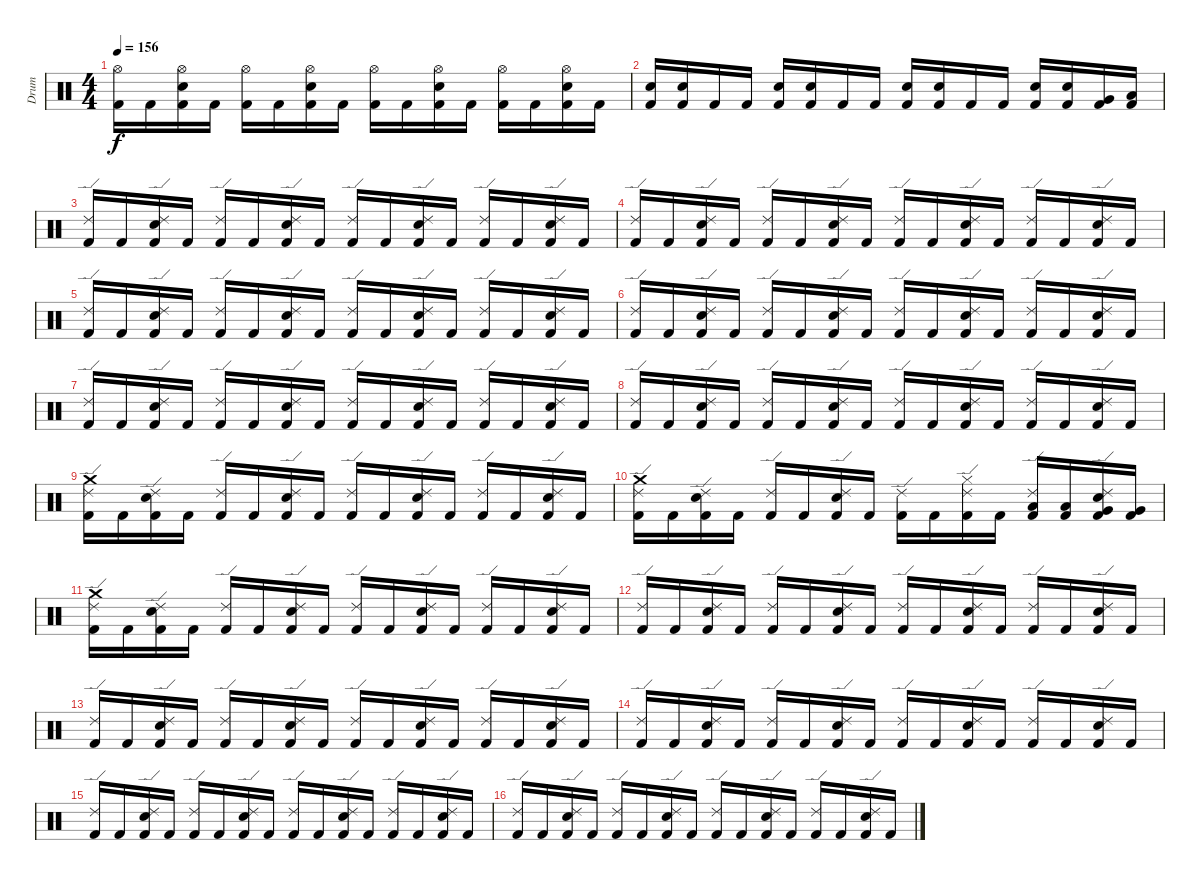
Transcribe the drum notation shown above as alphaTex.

\track (" Drum" " Drum") {instrument percussion}
\staff {score}
\articulation defaults
\ts (4 4)
\tempo 156
\clef neutral
\ks c
("Hi-Hat (open)" "Kick (hit) 2").16{dy f} "Kick (hit) 2".16 ("Snare (hit) 2" "Hi-Hat (open)" "Kick (hit) 2").16 "Kick (hit) 2".16 ("Hi-Hat (open)" "Kick (hit) 2").16 "Kick (hit) 2".16 ("Snare (hit) 2" "Hi-Hat (open)" "Kick (hit) 2").16 "Kick (hit) 2".16 ("Hi-Hat (open)" "Kick (hit) 2").16 "Kick (hit) 2".16 ("Snare (hit) 2" "Hi-Hat (open)" "Kick (hit) 2").16 "Kick (hit) 2".16 ("Hi-Hat (open)" "Kick (hit) 2").16 "Kick (hit) 2".16 ("Snare (hit) 2" "Hi-Hat (open)" "Kick (hit) 2").16 "Kick (hit) 2".16 |
("Electric Snare (hit)" "Kick (hit) 2").16 ("Electric Snare (hit)" "Kick (hit) 2").16 "Kick (hit) 2".16 "Kick (hit) 2".16 ("Electric Snare (hit)" "Kick (hit) 2").16 ("Electric Snare (hit)" "Kick (hit) 2").16 "Kick (hit) 2".16 "Kick (hit) 2".16 ("Electric Snare (hit)" "Kick (hit) 2").16 ("Electric Snare (hit)" "Kick (hit) 2").16 "Kick (hit) 2".16 "Kick (hit) 2".16 ("Electric Snare (hit)" "Kick (hit) 2").16 ("Electric Snare (hit)" "Kick (hit) 2").16 ("Very Low Tom (hit)" "Kick (hit) 2").16 ("Low Floor Tom (hit)" "Kick (hit) 2").16 |
("Ride (edge) 2" "Kick (hit) 2").16 "Kick (hit) 2".16 ("Snare (hit) 2" "Ride (edge) 2" "Kick (hit) 2").16 "Kick (hit) 2".16 ("Ride (edge) 2" "Kick (hit) 2").16 "Kick (hit) 2".16 ("Snare (hit) 2" "Ride (edge) 2" "Kick (hit) 2").16 "Kick (hit) 2".16 ("Ride (edge) 2" "Kick (hit) 2").16 "Kick (hit) 2".16 ("Snare (hit) 2" "Ride (edge) 2" "Kick (hit) 2").16 "Kick (hit) 2".16 ("Ride (edge) 2" "Kick (hit) 2").16 "Kick (hit) 2".16 ("Snare (hit) 2" "Ride (edge) 2" "Kick (hit) 2").16 "Kick (hit) 2".16 |
("Ride (edge) 2" "Kick (hit) 2").16 "Kick (hit) 2".16 ("Snare (hit) 2" "Ride (edge) 2" "Kick (hit) 2").16 "Kick (hit) 2".16 ("Ride (edge) 2" "Kick (hit) 2").16 "Kick (hit) 2".16 ("Snare (hit) 2" "Ride (edge) 2" "Kick (hit) 2").16 "Kick (hit) 2".16 ("Ride (edge) 2" "Kick (hit) 2").16 "Kick (hit) 2".16 ("Snare (hit) 2" "Ride (edge) 2" "Kick (hit) 2").16 "Kick (hit) 2".16 ("Ride (edge) 2" "Kick (hit) 2").16 "Kick (hit) 2".16 ("Snare (hit) 2" "Ride (edge) 2" "Kick (hit) 2").16 "Kick (hit) 2".16 |
("Ride (edge) 2" "Kick (hit) 2").16 "Kick (hit) 2".16 ("Snare (hit) 2" "Ride (edge) 2" "Kick (hit) 2").16 "Kick (hit) 2".16 ("Ride (edge) 2" "Kick (hit) 2").16 "Kick (hit) 2".16 ("Snare (hit) 2" "Ride (edge) 2" "Kick (hit) 2").16 "Kick (hit) 2".16 ("Ride (edge) 2" "Kick (hit) 2").16 "Kick (hit) 2".16 ("Snare (hit) 2" "Ride (edge) 2" "Kick (hit) 2").16 "Kick (hit) 2".16 ("Ride (edge) 2" "Kick (hit) 2").16 "Kick (hit) 2".16 ("Snare (hit) 2" "Ride (edge) 2" "Kick (hit) 2").16 "Kick (hit) 2".16 |
("Ride (edge) 2" "Kick (hit) 2").16 "Kick (hit) 2".16 ("Snare (hit) 2" "Ride (edge) 2" "Kick (hit) 2").16 "Kick (hit) 2".16 ("Ride (edge) 2" "Kick (hit) 2").16 "Kick (hit) 2".16 ("Snare (hit) 2" "Ride (edge) 2" "Kick (hit) 2").16 "Kick (hit) 2".16 ("Ride (edge) 2" "Kick (hit) 2").16 "Kick (hit) 2".16 ("Snare (hit) 2" "Ride (edge) 2" "Kick (hit) 2").16 "Kick (hit) 2".16 ("Ride (edge) 2" "Kick (hit) 2").16 "Kick (hit) 2".16 ("Snare (hit) 2" "Ride (edge) 2" "Kick (hit) 2").16 "Kick (hit) 2".16 |
("Ride (edge) 2" "Kick (hit) 2").16 "Kick (hit) 2".16 ("Snare (hit) 2" "Ride (edge) 2" "Kick (hit) 2").16 "Kick (hit) 2".16 ("Ride (edge) 2" "Kick (hit) 2").16 "Kick (hit) 2".16 ("Snare (hit) 2" "Ride (edge) 2" "Kick (hit) 2").16 "Kick (hit) 2".16 ("Ride (edge) 2" "Kick (hit) 2").16 "Kick (hit) 2".16 ("Snare (hit) 2" "Ride (edge) 2" "Kick (hit) 2").16 "Kick (hit) 2".16 ("Ride (edge) 2" "Kick (hit) 2").16 "Kick (hit) 2".16 ("Snare (hit) 2" "Ride (edge) 2" "Kick (hit) 2").16 "Kick (hit) 2".16 |
("Ride (edge) 2" "Kick (hit) 2").16 "Kick (hit) 2".16 ("Snare (hit) 2" "Ride (edge) 2" "Kick (hit) 2").16 "Kick (hit) 2".16 ("Ride (edge) 2" "Kick (hit) 2").16 "Kick (hit) 2".16 ("Snare (hit) 2" "Ride (edge) 2" "Kick (hit) 2").16 "Kick (hit) 2".16 ("Ride (edge) 2" "Kick (hit) 2").16 "Kick (hit) 2".16 ("Snare (hit) 2" "Ride (edge) 2" "Kick (hit) 2").16 "Kick (hit) 2".16 ("Ride (edge) 2" "Kick (hit) 2").16 "Kick (hit) 2".16 ("Snare (hit) 2" "Ride (edge) 2" "Kick (hit) 2").16 "Kick (hit) 2".16 |
("Crash medium (hit)" "Ride (edge) 2" "Kick (hit) 2").16 "Kick (hit) 2".16 ("Snare (hit) 2" "Ride (edge) 2" "Kick (hit) 2").16 "Kick (hit) 2".16 ("Ride (edge) 2" "Kick (hit) 2").16 "Kick (hit) 2".16 ("Snare (hit) 2" "Ride (edge) 2" "Kick (hit) 2").16 "Kick (hit) 2".16 ("Ride (edge) 2" "Kick (hit) 2").16 "Kick (hit) 2".16 ("Snare (hit) 2" "Ride (edge) 2" "Kick (hit) 2").16 "Kick (hit) 2".16 ("Ride (edge) 2" "Kick (hit) 2").16 "Kick (hit) 2".16 ("Snare (hit) 2" "Ride (edge) 2" "Kick (hit) 2").16 "Kick (hit) 2".16 |
("Crash medium (hit)" "Ride (edge) 2" "Kick (hit) 2").16 "Kick (hit) 2".16 ("Snare (hit) 2" "Ride (edge) 2" "Kick (hit) 2").16 "Kick (hit) 2".16 ("Ride (edge) 2" "Kick (hit) 2").16 "Kick (hit) 2".16 ("Snare (hit) 2" "Ride (edge) 2" "Kick (hit) 2").16 "Kick (hit) 2".16 ("Ride (edge) 2" "Kick (hit) 2").16 "Kick (hit) 2".16 ("Kick (hit) 2" "Hi-Hat (closed)" "Ride (edge) 2").16 "Kick (hit) 2".16 ("Low Tom (hit)" "Ride (edge) 2" "Kick (hit) 2").16 ("Low Tom (hit)" "Kick (hit) 2").16 ("Very Low Tom (hit)" "Snare (hit) 2" "Ride (edge) 2" "Kick (hit) 2").16 ("Very Low Tom (hit)" "Kick (hit) 2").16 |
("Crash medium (hit)" "Ride (edge) 2" "Kick (hit) 2").16 "Kick (hit) 2".16 ("Snare (hit) 2" "Ride (edge) 2" "Kick (hit) 2").16 "Kick (hit) 2".16 ("Ride (edge) 2" "Kick (hit) 2").16 "Kick (hit) 2".16 ("Snare (hit) 2" "Ride (edge) 2" "Kick (hit) 2").16 "Kick (hit) 2".16 ("Ride (edge) 2" "Kick (hit) 2").16 "Kick (hit) 2".16 ("Snare (hit) 2" "Ride (edge) 2" "Kick (hit) 2").16 "Kick (hit) 2".16 ("Ride (edge) 2" "Kick (hit) 2").16 "Kick (hit) 2".16 ("Snare (hit) 2" "Ride (edge) 2" "Kick (hit) 2").16 "Kick (hit) 2".16 |
("Ride (edge) 2" "Kick (hit) 2").16 "Kick (hit) 2".16 ("Snare (hit) 2" "Ride (edge) 2" "Kick (hit) 2").16 "Kick (hit) 2".16 ("Ride (edge) 2" "Kick (hit) 2").16 "Kick (hit) 2".16 ("Snare (hit) 2" "Ride (edge) 2" "Kick (hit) 2").16 "Kick (hit) 2".16 ("Ride (edge) 2" "Kick (hit) 2").16 "Kick (hit) 2".16 ("Snare (hit) 2" "Ride (edge) 2" "Kick (hit) 2").16 "Kick (hit) 2".16 ("Ride (edge) 2" "Kick (hit) 2").16 "Kick (hit) 2".16 ("Snare (hit) 2" "Ride (edge) 2" "Kick (hit) 2").16 "Kick (hit) 2".16 |
("Ride (edge) 2" "Kick (hit) 2").16 "Kick (hit) 2".16 ("Snare (hit) 2" "Ride (edge) 2" "Kick (hit) 2").16 "Kick (hit) 2".16 ("Ride (edge) 2" "Kick (hit) 2").16 "Kick (hit) 2".16 ("Snare (hit) 2" "Ride (edge) 2" "Kick (hit) 2").16 "Kick (hit) 2".16 ("Ride (edge) 2" "Kick (hit) 2").16 "Kick (hit) 2".16 ("Snare (hit) 2" "Ride (edge) 2" "Kick (hit) 2").16 "Kick (hit) 2".16 ("Ride (edge) 2" "Kick (hit) 2").16 "Kick (hit) 2".16 ("Snare (hit) 2" "Ride (edge) 2" "Kick (hit) 2").16 "Kick (hit) 2".16 |
("Ride (edge) 2" "Kick (hit) 2").16 "Kick (hit) 2".16 ("Snare (hit) 2" "Ride (edge) 2" "Kick (hit) 2").16 "Kick (hit) 2".16 ("Ride (edge) 2" "Kick (hit) 2").16 "Kick (hit) 2".16 ("Snare (hit) 2" "Ride (edge) 2" "Kick (hit) 2").16 "Kick (hit) 2".16 ("Ride (edge) 2" "Kick (hit) 2").16 "Kick (hit) 2".16 ("Snare (hit) 2" "Ride (edge) 2" "Kick (hit) 2").16 "Kick (hit) 2".16 ("Ride (edge) 2" "Kick (hit) 2").16 "Kick (hit) 2".16 ("Snare (hit) 2" "Ride (edge) 2" "Kick (hit) 2").16 "Kick (hit) 2".16 |
("Ride (edge) 2" "Kick (hit) 2").16 "Kick (hit) 2".16 ("Snare (hit) 2" "Ride (edge) 2" "Kick (hit) 2").16 "Kick (hit) 2".16 ("Ride (edge) 2" "Kick (hit) 2").16 "Kick (hit) 2".16 ("Snare (hit) 2" "Ride (edge) 2" "Kick (hit) 2").16 "Kick (hit) 2".16 ("Ride (edge) 2" "Kick (hit) 2").16 "Kick (hit) 2".16 ("Snare (hit) 2" "Ride (edge) 2" "Kick (hit) 2").16 "Kick (hit) 2".16 ("Ride (edge) 2" "Kick (hit) 2").16 "Kick (hit) 2".16 ("Snare (hit) 2" "Ride (edge) 2" "Kick (hit) 2").16 "Kick (hit) 2".16 |
("Ride (edge) 2" "Kick (hit) 2").16 "Kick (hit) 2".16 ("Snare (hit) 2" "Ride (edge) 2" "Kick (hit) 2").16 "Kick (hit) 2".16 ("Ride (edge) 2" "Kick (hit) 2").16 "Kick (hit) 2".16 ("Snare (hit) 2" "Ride (edge) 2" "Kick (hit) 2").16 "Kick (hit) 2".16 ("Ride (edge) 2" "Kick (hit) 2").16 "Kick (hit) 2".16 ("Snare (hit) 2" "Ride (edge) 2" "Kick (hit) 2").16 "Kick (hit) 2".16 ("Ride (edge) 2" "Kick (hit) 2").16 "Kick (hit) 2".16 ("Snare (hit) 2" "Ride (edge) 2" "Kick (hit) 2").16 "Kick (hit) 2".16
